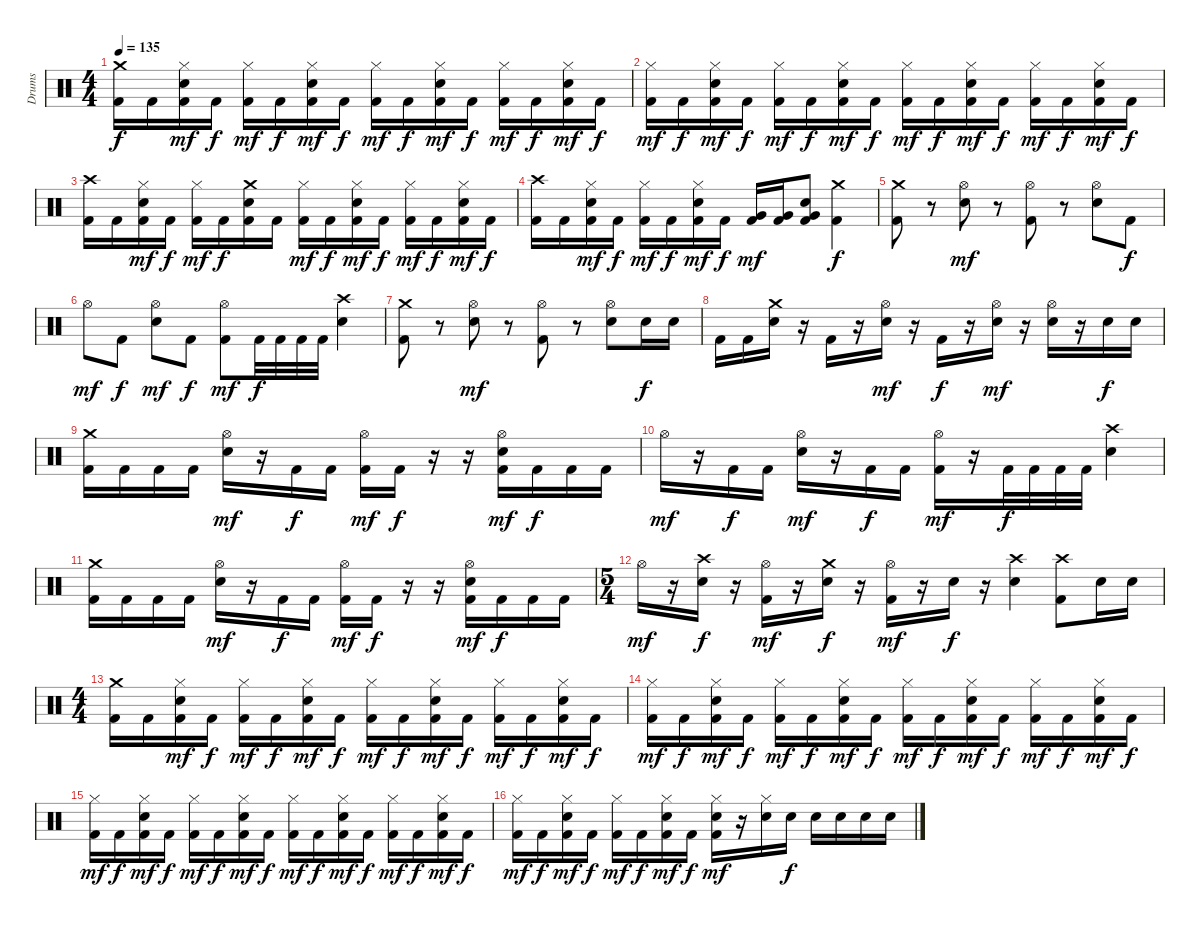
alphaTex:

\track ("Drums" "Drums") {instrument percussion}
\staff {score}
\articulation defaults
\ts (4 4)
\tempo 135
\clef neutral
\ks c
("Crash medium (hit)" "Kick (hit) 2").16{dy f} "Kick (hit) 2".16 ("Hi-Hat (closed)" "Electric Snare (hit)" "Kick (hit) 2").16{dy mf} "Kick (hit) 2".16{dy f} ("Hi-Hat (closed)" "Kick (hit) 2").16{dy mf} "Kick (hit) 2".16{dy f} ("Hi-Hat (closed)" "Electric Snare (hit)" "Kick (hit) 2").16{dy mf} "Kick (hit) 2".16{dy f} ("Hi-Hat (closed)" "Kick (hit) 2").16{dy mf} "Kick (hit) 2".16{dy f} ("Hi-Hat (closed)" "Electric Snare (hit)" "Kick (hit) 2").16{dy mf} "Kick (hit) 2".16{dy f} ("Hi-Hat (closed)" "Kick (hit) 2").16{dy mf} "Kick (hit) 2".16{dy f} ("Hi-Hat (closed)" "Electric Snare (hit)" "Kick (hit) 2").16{dy mf} "Kick (hit) 2".16{dy f} |
("Hi-Hat (closed)" "Kick (hit) 2").16{dy mf} "Kick (hit) 2".16{dy f} ("Hi-Hat (closed)" "Electric Snare (hit)" "Kick (hit) 2").16{dy mf} "Kick (hit) 2".16{dy f} ("Hi-Hat (closed)" "Kick (hit) 2").16{dy mf} "Kick (hit) 2".16{dy f} ("Hi-Hat (closed)" "Electric Snare (hit)" "Kick (hit) 2").16{dy mf} "Kick (hit) 2".16{dy f} ("Hi-Hat (closed)" "Kick (hit) 2").16{dy mf} "Kick (hit) 2".16{dy f} ("Hi-Hat (closed)" "Electric Snare (hit)" "Kick (hit) 2").16{dy mf} "Kick (hit) 2".16{dy f} ("Hi-Hat (closed)" "Kick (hit) 2").16{dy mf} "Kick (hit) 2".16{dy f} ("Hi-Hat (closed)" "Electric Snare (hit)" "Kick (hit) 2").16{dy mf} "Kick (hit) 2".16{dy f} |
("Crash high (hit)" "Kick (hit) 2").16 "Kick (hit) 2".16 ("Hi-Hat (closed)" "Electric Snare (hit)" "Kick (hit) 2").16{dy mf} "Kick (hit) 2".16{dy f} ("Hi-Hat (closed)" "Kick (hit) 2").16{dy mf} "Kick (hit) 2".16{dy f} ("Crash medium (hit)" "Electric Snare (hit)" "Kick (hit) 2").16 "Kick (hit) 2".16 ("Hi-Hat (closed)" "Kick (hit) 2").16{dy mf} "Kick (hit) 2".16{dy f} ("Hi-Hat (closed)" "Electric Snare (hit)" "Kick (hit) 2").16{dy mf} "Kick (hit) 2".16{dy f} ("Hi-Hat (closed)" "Kick (hit) 2").16{dy mf} "Kick (hit) 2".16{dy f} ("Hi-Hat (closed)" "Electric Snare (hit)" "Kick (hit) 2").16{dy mf} "Kick (hit) 2".16{dy f} |
("Crash high (hit)" "Kick (hit) 2").16 "Kick (hit) 2".16 ("Hi-Hat (closed)" "Electric Snare (hit)" "Kick (hit) 2").16{dy mf} "Kick (hit) 2".16{dy f} ("Hi-Hat (closed)" "Kick (hit) 2").16{dy mf} "Kick (hit) 2".16{dy f} ("Hi-Hat (closed)" "Electric Snare (hit)" "Kick (hit) 2").16{dy mf} "Kick (hit) 2".16{dy f} ("Very Low Tom (hit)" "Kick (hit) 2").16{dy mf} ("Very Low Tom (hit)" "Kick (hit) 2").16 ("Very Low Tom (hit)" "Electric Snare (hit)" "Kick (hit) 2").8 ("Crash medium (hit)" "Kick (hit) 2").4{dy f} |
("Crash medium (hit)" "Kick (hit) 2").8 r.8 ("Hi-Hat (open)" "Electric Snare (hit)").8{dy mf} r.8 ("Hi-Hat (open)" "Kick (hit) 2").8 r.8 ("Hi-Hat (open)" "Electric Snare (hit)").8 "Kick (hit) 2".8{dy f} |
"Hi-Hat (open)".8{dy mf} "Kick (hit) 2".8{dy f} ("Hi-Hat (open)" "Electric Snare (hit)").8{dy mf} "Kick (hit) 2".8{dy f} ("Hi-Hat (open)" "Kick (hit) 2").8{dy mf} "Kick (hit) 2".32{dy f} "Kick (hit) 2".32 "Kick (hit) 2".32 "Kick (hit) 2".32 ("Crash high (hit)" "Electric Snare (hit)").4 |
("Crash medium (hit)" "Kick (hit) 2").8 r.8 ("Hi-Hat (open)" "Electric Snare (hit)").8{dy mf} r.8 ("Hi-Hat (open)" "Kick (hit) 2").8 r.8 ("Hi-Hat (open)" "Electric Snare (hit)").8 "Electric Snare (hit)".16{dy f} "Electric Snare (hit)".16 |
"Kick (hit) 2".16 "Kick (hit) 2".16 ("Crash medium (hit)" "Electric Snare (hit)").16 r.16 "Kick (hit) 2".16 r.16 ("Hi-Hat (open)" "Electric Snare (hit)").16{dy mf} r.16 "Kick (hit) 2".16{dy f} r.16 ("Hi-Hat (open)" "Electric Snare (hit)").16{dy mf} r.16 ("Hi-Hat (open)" "Electric Snare (hit)").16 r.16 "Electric Snare (hit)".16{dy f} "Electric Snare (hit)".16 |
("Crash medium (hit)" "Kick (hit) 2").16 "Kick (hit) 2".16 "Kick (hit) 2".16 "Kick (hit) 2".16 ("Hi-Hat (open)" "Electric Snare (hit)").16{dy mf} r.16 "Kick (hit) 2".16{dy f} "Kick (hit) 2".16 ("Hi-Hat (open)" "Kick (hit) 2").16{dy mf} "Kick (hit) 2".16{dy f} r.16 r.16 ("Hi-Hat (open)" "Electric Snare (hit)" "Kick (hit) 2").16{dy mf} "Kick (hit) 2".16{dy f} "Kick (hit) 2".16 "Kick (hit) 2".16 |
"Hi-Hat (open)".16{dy mf} r.16 "Kick (hit) 2".16{dy f} "Kick (hit) 2".16 ("Hi-Hat (open)" "Electric Snare (hit)").16{dy mf} r.16 "Kick (hit) 2".16{dy f} "Kick (hit) 2".16 ("Hi-Hat (open)" "Kick (hit) 2").16{dy mf} r.16 "Kick (hit) 2".32{dy f} "Kick (hit) 2".32 "Kick (hit) 2".32 "Kick (hit) 2".32 ("Crash high (hit)" "Electric Snare (hit)").4 |
("Crash medium (hit)" "Kick (hit) 2").16 "Kick (hit) 2".16 "Kick (hit) 2".16 "Kick (hit) 2".16 ("Hi-Hat (open)" "Electric Snare (hit)").16{dy mf} r.16 "Kick (hit) 2".16{dy f} "Kick (hit) 2".16 ("Hi-Hat (open)" "Kick (hit) 2").16{dy mf} "Kick (hit) 2".16{dy f} r.16 r.16 ("Hi-Hat (open)" "Electric Snare (hit)" "Kick (hit) 2").16{dy mf} "Kick (hit) 2".16{dy f} "Kick (hit) 2".16 "Kick (hit) 2".16 |
\ts (5 4)
"Hi-Hat (open)".16{dy mf} r.16 ("Crash high (hit)" "Electric Snare (hit)").16{dy f} r.16 ("Hi-Hat (open)" "Kick (hit) 2").16{dy mf} r.16 ("Crash medium (hit)" "Electric Snare (hit)").16{dy f} r.16 ("Hi-Hat (open)" "Kick (hit) 2").16{dy mf} r.16 "Electric Snare (hit)".16{dy f} r.16 ("Crash high (hit)" "Electric Snare (hit)").4 ("Crash high (hit)" "Kick (hit) 2").8 "Electric Snare (hit)".16 "Electric Snare (hit)".16 |
\ts (4 4)
("Crash medium (hit)" "Kick (hit) 2").16 "Kick (hit) 2".16 ("Hi-Hat (closed)" "Electric Snare (hit)" "Kick (hit) 2").16{dy mf} "Kick (hit) 2".16{dy f} ("Hi-Hat (closed)" "Kick (hit) 2").16{dy mf} "Kick (hit) 2".16{dy f} ("Hi-Hat (closed)" "Electric Snare (hit)" "Kick (hit) 2").16{dy mf} "Kick (hit) 2".16{dy f} ("Hi-Hat (closed)" "Kick (hit) 2").16{dy mf} "Kick (hit) 2".16{dy f} ("Hi-Hat (closed)" "Electric Snare (hit)" "Kick (hit) 2").16{dy mf} "Kick (hit) 2".16{dy f} ("Hi-Hat (closed)" "Kick (hit) 2").16{dy mf} "Kick (hit) 2".16{dy f} ("Hi-Hat (closed)" "Electric Snare (hit)" "Kick (hit) 2").16{dy mf} "Kick (hit) 2".16{dy f} |
("Hi-Hat (closed)" "Kick (hit) 2").16{dy mf} "Kick (hit) 2".16{dy f} ("Hi-Hat (closed)" "Electric Snare (hit)" "Kick (hit) 2").16{dy mf} "Kick (hit) 2".16{dy f} ("Hi-Hat (closed)" "Kick (hit) 2").16{dy mf} "Kick (hit) 2".16{dy f} ("Hi-Hat (closed)" "Electric Snare (hit)" "Kick (hit) 2").16{dy mf} "Kick (hit) 2".16{dy f} ("Hi-Hat (closed)" "Kick (hit) 2").16{dy mf} "Kick (hit) 2".16{dy f} ("Hi-Hat (closed)" "Electric Snare (hit)" "Kick (hit) 2").16{dy mf} "Kick (hit) 2".16{dy f} ("Hi-Hat (closed)" "Kick (hit) 2").16{dy mf} "Kick (hit) 2".16{dy f} ("Hi-Hat (closed)" "Electric Snare (hit)" "Kick (hit) 2").16{dy mf} "Kick (hit) 2".16{dy f} |
("Hi-Hat (closed)" "Kick (hit) 2").16{dy mf} "Kick (hit) 2".16{dy f} ("Hi-Hat (closed)" "Electric Snare (hit)" "Kick (hit) 2").16{dy mf} "Kick (hit) 2".16{dy f} ("Hi-Hat (closed)" "Kick (hit) 2").16{dy mf} "Kick (hit) 2".16{dy f} ("Hi-Hat (closed)" "Electric Snare (hit)" "Kick (hit) 2").16{dy mf} "Kick (hit) 2".16{dy f} ("Hi-Hat (closed)" "Kick (hit) 2").16{dy mf} "Kick (hit) 2".16{dy f} ("Hi-Hat (closed)" "Electric Snare (hit)" "Kick (hit) 2").16{dy mf} "Kick (hit) 2".16{dy f} ("Hi-Hat (closed)" "Kick (hit) 2").16{dy mf} "Kick (hit) 2".16{dy f} ("Hi-Hat (closed)" "Electric Snare (hit)" "Kick (hit) 2").16{dy mf} "Kick (hit) 2".16{dy f} |
("Hi-Hat (closed)" "Kick (hit) 2").16{dy mf} "Kick (hit) 2".16{dy f} ("Hi-Hat (closed)" "Electric Snare (hit)" "Kick (hit) 2").16{dy mf} "Kick (hit) 2".16{dy f} ("Hi-Hat (closed)" "Kick (hit) 2").16{dy mf} "Kick (hit) 2".16{dy f} ("Hi-Hat (closed)" "Electric Snare (hit)" "Kick (hit) 2").16{dy mf} "Kick (hit) 2".16{dy f} ("Hi-Hat (closed)" "Electric Snare (hit)" "Kick (hit) 2").16{dy mf} r.16 ("Hi-Hat (closed)" "Electric Snare (hit)").16 "Electric Snare (hit)".16{dy f} "Electric Snare (hit)".16 "Electric Snare (hit)".16 "Electric Snare (hit)".16 "Electric Snare (hit)".16
